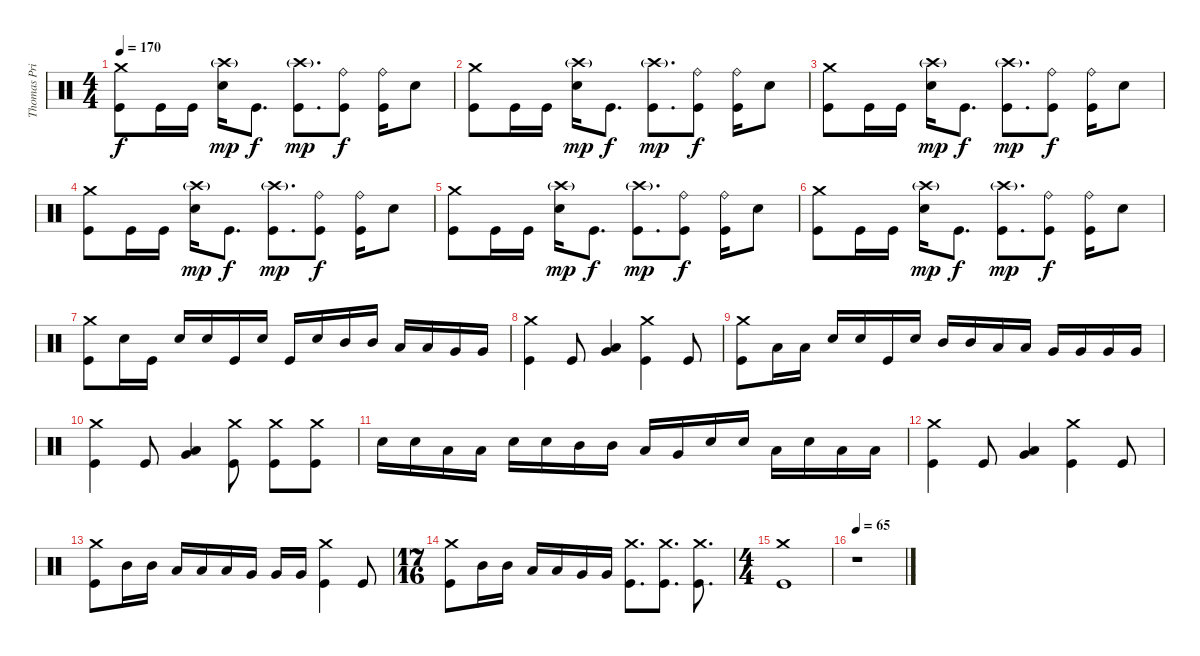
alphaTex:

\track ("Thomas Pridgen [Drum]" "Thomas Pri") {instrument percussion}
\staff {score}
\articulation defaults
\ts (4 4)
\tempo 170
\clef neutral
\ks c
("Crash medium (hit)" "Kick (hit)").8{dy f} "Kick (hit)".16 "Kick (hit)".16 ("Crash high (hit)"{g} "Electric Snare (hit)").16{dy mp} "Kick (hit)".8{d dy f} ("Crash high (hit)"{g} "Kick (hit)").8{d dy mp} ("Ride (bell)" "Kick (hit)").8{dy f} ("Ride (bell)" "Kick (hit)").16 "Electric Snare (hit)".8 |
("Crash medium (hit)" "Kick (hit)").8 "Kick (hit)".16 "Kick (hit)".16 ("Crash high (hit)"{g} "Electric Snare (hit)").16{dy mp} "Kick (hit)".8{d dy f} ("Crash high (hit)"{g} "Kick (hit)").8{d dy mp} ("Ride (bell)" "Kick (hit)").8{dy f} ("Ride (bell)" "Kick (hit)").16 "Electric Snare (hit)".8 |
("Crash medium (hit)" "Kick (hit)").8 "Kick (hit)".16 "Kick (hit)".16 ("Crash high (hit)"{g} "Electric Snare (hit)").16{dy mp} "Kick (hit)".8{d dy f} ("Crash high (hit)"{g} "Kick (hit)").8{d dy mp} ("Ride (bell)" "Kick (hit)").8{dy f} ("Ride (bell)" "Kick (hit)").16 "Electric Snare (hit)".8 |
("Crash medium (hit)" "Kick (hit)").8 "Kick (hit)".16 "Kick (hit)".16 ("Crash high (hit)"{g} "Electric Snare (hit)").16{dy mp} "Kick (hit)".8{d dy f} ("Crash high (hit)"{g} "Kick (hit)").8{d dy mp} ("Ride (bell)" "Kick (hit)").8{dy f} ("Ride (bell)" "Kick (hit)").16 "Electric Snare (hit)".8 |
("Crash medium (hit)" "Kick (hit)").8 "Kick (hit)".16 "Kick (hit)".16 ("Crash high (hit)"{g} "Electric Snare (hit)").16{dy mp} "Kick (hit)".8{d dy f} ("Crash high (hit)"{g} "Kick (hit)").8{d dy mp} ("Ride (bell)" "Kick (hit)").8{dy f} ("Ride (bell)" "Kick (hit)").16 "Electric Snare (hit)".8 |
("Crash medium (hit)" "Kick (hit)").8 "Kick (hit)".16 "Kick (hit)".16 ("Crash high (hit)"{g} "Electric Snare (hit)").16{dy mp} "Kick (hit)".8{d dy f} ("Crash high (hit)"{g} "Kick (hit)").8{d dy mp} ("Ride (bell)" "Kick (hit)").8{dy f} ("Ride (bell)" "Kick (hit)").16 "Electric Snare (hit)".8 |
("Crash medium (hit)" "Kick (hit)").8 "Electric Snare (hit)".16 "Kick (hit)".16 "Electric Snare (hit)".16 "Electric Snare (hit)".16 "Kick (hit)".16 "Electric Snare (hit)".16 "Kick (hit)".16 "Electric Snare (hit)".16 "Mid Tom (hit)".16 "Mid Tom (hit)".16 "Low Tom (hit)".16 "Low Tom (hit)".16 "Very Low Tom (hit)".16 "Very Low Tom (hit)".16 |
("Crash medium (hit)" "Kick (hit)").4 "Kick (hit)".8 ("Low Tom (hit)" "Very Low Tom (hit)").4 ("Crash medium (hit)" "Kick (hit)").4 "Kick (hit)".8 |
("Crash medium (hit)" "Kick (hit)").8 "Low Tom (hit)".16 "Low Tom (hit)".16 "Electric Snare (hit)".16 "Electric Snare (hit)".16 "Kick (hit)".16 "Electric Snare (hit)".16 "Mid Tom (hit)".16 "Mid Tom (hit)".16 "Low Tom (hit)".16 "Low Tom (hit)".16 "Very Low Tom (hit)".16 "Very Low Tom (hit)".16 "Very Low Tom (hit)".16 "Very Low Tom (hit)".16 |
("Crash medium (hit)" "Kick (hit)").4 "Kick (hit)".8 ("Low Tom (hit)" "Very Low Tom (hit)").4 ("Crash medium (hit)" "Kick (hit)").8 ("Crash medium (hit)" "Kick (hit)").8 ("Crash medium (hit)" "Kick (hit)").8 |
"Electric Snare (hit)".16 "Electric Snare (hit)".16 "Low Tom (hit)".16 "Low Tom (hit)".16 "Electric Snare (hit)".16 "Electric Snare (hit)".16 "Mid Tom (hit)".16 "Mid Tom (hit)".16 "Low Tom (hit)".16 "Very Low Tom (hit)".16 "Electric Snare (hit)".16 "Electric Snare (hit)".16 "Low Tom (hit)".16 "Electric Snare (hit)".16 "Low Tom (hit)".16 "Low Tom (hit)".16 |
("Crash medium (hit)" "Kick (hit)").4 "Kick (hit)".8 ("Low Tom (hit)" "Very Low Tom (hit)").4 ("Crash medium (hit)" "Kick (hit)").4 "Kick (hit)".8 |
("Crash medium (hit)" "Kick (hit)").8 "Mid Tom (hit)".16 "Mid Tom (hit)".16 "Low Tom (hit)".16 "Low Tom (hit)".16 "Low Tom (hit)".16 "Very Low Tom (hit)".16 "Very Low Tom (hit)".16 "Very Low Tom (hit)".16 ("Crash medium (hit)" "Kick (hit)").4 "Kick (hit)".8 |
\ts (17 16)
("Crash medium (hit)" "Kick (hit)").8 "Mid Tom (hit)".16 "Mid Tom (hit)".16 "Low Tom (hit)".16 "Low Tom (hit)".16 "Very Low Tom (hit)".16 "Very Low Tom (hit)".16 ("Crash medium (hit)" "Kick (hit)").8{d} ("Crash medium (hit)" "Kick (hit)").8{d} ("Crash medium (hit)" "Kick (hit)").8{d} |
\ts (4 4)
("Crash medium (hit)" "Kick (hit)").1 |
\tempo 65
r.1
